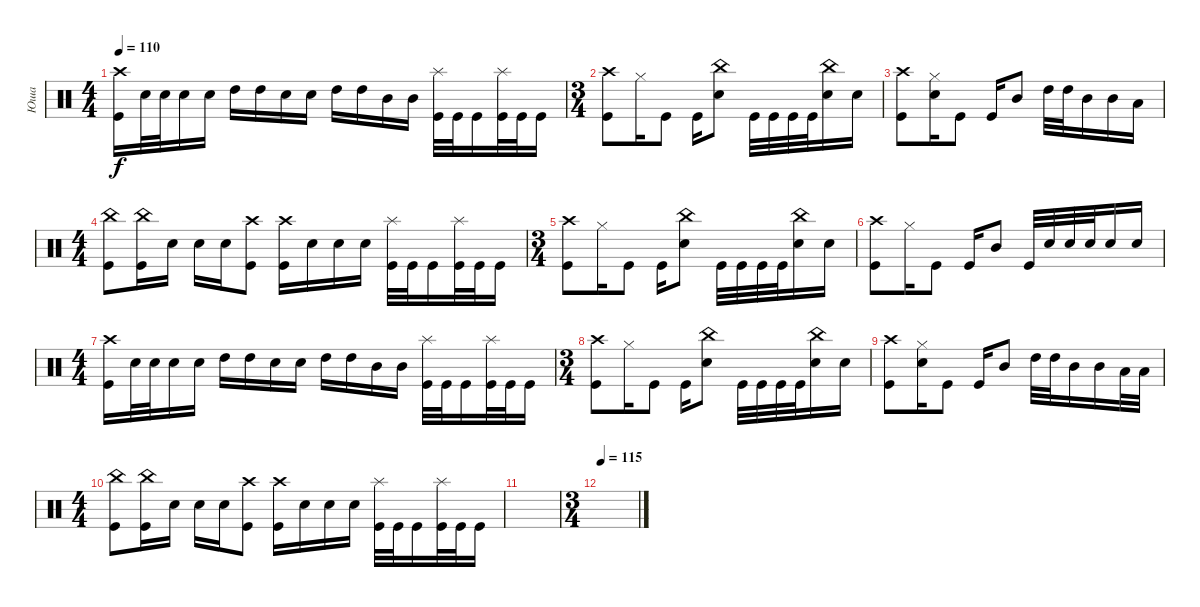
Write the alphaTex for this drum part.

\track ("Юша" "Юша") {instrument percussion}
\staff {score}
\articulation defaults
\ts (4 4)
\tempo 110
\clef neutral
\ks c
("Kick (hit)" "Crash high (hit)").16{dy f} "Snare (hit) 2".32 "Snare (hit) 2".32 "Snare (hit) 2".16 "Snare (hit) 2".16 "High Tom (hit)".16 "High Tom (hit)".16 "Snare (hit) 2".16 "Snare (hit) 2".16 "High Tom (hit)".16 "High Tom (hit)".16 "Mid Tom (hit)".16 "Mid Tom (hit)".16 ("Splash (hit)" "Kick (hit)").32 "Kick (hit)".32 "Kick (hit)".16 ("Splash (hit)" "Kick (hit)").32 "Kick (hit)".32 "Kick (hit)".16 |
\ts (3 4)
("Kick (hit)" "Crash high (hit)").8 "Hi-Hat (closed)".16 "Kick (hit)".8 "Kick (hit)".16 ("Snare (hit) 2" "China (hit)").8 "Kick (hit)".32 "Kick (hit)".32 "Kick (hit)".32 "Kick (hit)".32 ("Snare (hit) 2" "China (hit)").16 "Snare (hit) 2".16 |
("Kick (hit)" "Crash high (hit)").8 ("Snare (hit) 2" "Hi-Hat (closed)").16 "Kick (hit)".8 "Kick (hit)".16 "Mid Tom (hit)".8 "High Tom (hit)".32 "High Tom (hit)".32 "Mid Tom (hit)".16 "Mid Tom (hit)".16 "Low Tom (hit)".16 |
\ts (4 4)
("China (hit)" "Kick (hit)").8 ("Kick (hit)" "China (hit)").16 "Snare (hit) 2".16 "Snare (hit) 2".16 "Snare (hit) 2".16 ("Crash high (hit)" "Kick (hit)").8 ("Crash high (hit)" "Kick (hit)").16 "Snare (hit) 2".16 "Snare (hit) 2".16 "Snare (hit) 2".16 ("Splash (hit)" "Kick (hit)").32 "Kick (hit)".32 "Kick (hit)".16 ("Splash (hit)" "Kick (hit)").32 "Kick (hit)".32 "Kick (hit)".16 |
\ts (3 4)
("Kick (hit)" "Crash high (hit)").8 "Hi-Hat (closed)".16 "Kick (hit)".8 "Kick (hit)".16 ("Snare (hit) 2" "China (hit)").8 "Kick (hit)".32 "Kick (hit)".32 "Kick (hit)".32 "Kick (hit)".32 ("Snare (hit) 2" "China (hit)").16 "Snare (hit) 2".16 |
("Kick (hit)" "Crash high (hit)").8 "Hi-Hat (closed)".16 "Kick (hit)".8 "Kick (hit)".16 "Mid Tom (hit)".8 "Kick (hit)".32 "Snare (hit) 2".32 "Snare (hit) 2".32 "Snare (hit) 2".32 "Snare (hit) 2".16 "Snare (hit) 2".16 |
\ts (4 4)
("Kick (hit)" "Crash high (hit)").16 "Snare (hit) 2".32 "Snare (hit) 2".32 "Snare (hit) 2".16 "Snare (hit) 2".16 "High Tom (hit)".16 "High Tom (hit)".16 "Snare (hit) 2".16 "Snare (hit) 2".16 "High Tom (hit)".16 "High Tom (hit)".16 "Mid Tom (hit)".16 "Mid Tom (hit)".16 ("Splash (hit)" "Kick (hit)").32 "Kick (hit)".32 "Kick (hit)".16 ("Splash (hit)" "Kick (hit)").32 "Kick (hit)".32 "Kick (hit)".16 |
\ts (3 4)
("Kick (hit)" "Crash high (hit)").8 "Hi-Hat (closed)".16 "Kick (hit)".8 "Kick (hit)".16 ("Snare (hit) 2" "China (hit)").8 "Kick (hit)".32 "Kick (hit)".32 "Kick (hit)".32 "Kick (hit)".32 ("Snare (hit) 2" "China (hit)").16 "Snare (hit) 2".16 |
("Kick (hit)" "Crash high (hit)").8 ("Snare (hit) 2" "Hi-Hat (closed)").16 "Kick (hit)".8 "Kick (hit)".16 "Mid Tom (hit)".8 "High Tom (hit)".32 "High Tom (hit)".32 "Mid Tom (hit)".16 "Mid Tom (hit)".16 "Low Tom (hit)".32 "Low Tom (hit)".32 |
\ts (4 4)
("China (hit)" "Kick (hit)").8 ("Kick (hit)" "China (hit)").16 "Snare (hit) 2".16 "Snare (hit) 2".16 "Snare (hit) 2".16 ("Crash high (hit)" "Kick (hit)").8 ("Crash high (hit)" "Kick (hit)").16 "Snare (hit) 2".16 "Snare (hit) 2".16 "Snare (hit) 2".16 ("Splash (hit)" "Kick (hit)").32 "Kick (hit)".32 "Kick (hit)".16 ("Splash (hit)" "Kick (hit)").32 "Kick (hit)".32 "Kick (hit)".16 |
|
\ts (3 4)
\tempo 115
